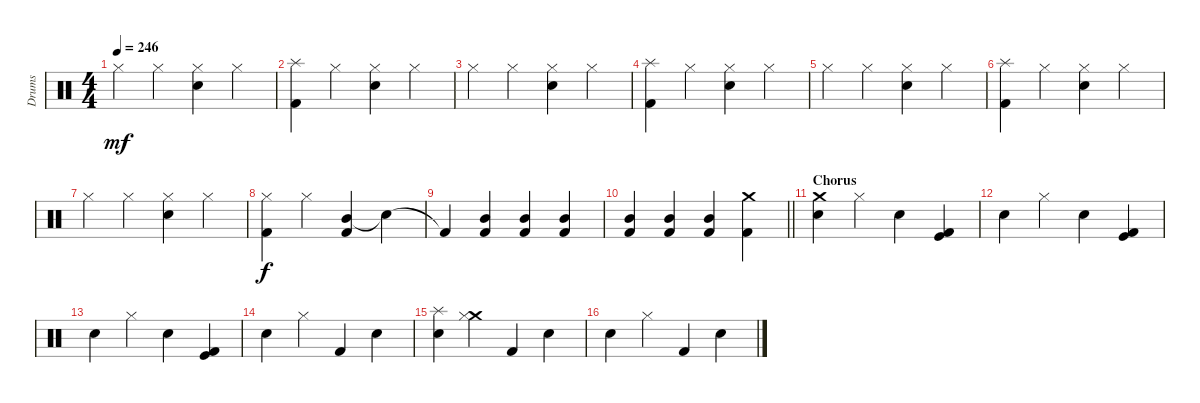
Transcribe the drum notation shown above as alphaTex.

\track ("Drums" "Drums") {instrument percussion}
\staff {score}
\articulation defaults
\ts (4 4)
\tempo 246
\clef neutral
\ks c "Hi-Hat (closed)".4{dy mf} "Hi-Hat (closed)".4
("Hi-Hat (closed)" "Snare (hit) 2").4 "Hi-Hat (closed)".4 |
("Splash (hit)" "Kick (hit) 2").4 "Hi-Hat (closed)".4 ("Hi-Hat (closed)" "Snare (hit) 2").4 "Hi-Hat (closed)".4 |
"Hi-Hat (closed)".4 "Hi-Hat (closed)".4 ("Hi-Hat (closed)" "Snare (hit) 2").4 "Hi-Hat (closed)".4 |
("Splash (hit)" "Kick (hit) 2").4 "Hi-Hat (closed)".4 ("Hi-Hat (closed)" "Snare (hit) 2").4 "Hi-Hat (closed)".4 |
"Hi-Hat (closed)".4 "Hi-Hat (closed)".4 ("Hi-Hat (closed)" "Snare (hit) 2").4 "Hi-Hat (closed)".4 |
("Splash (hit)" "Kick (hit) 2").4 "Hi-Hat (closed)".4 ("Hi-Hat (closed)" "Snare (hit) 2").4 "Hi-Hat (closed)".4 |
"Hi-Hat (closed)".4 "Hi-Hat (closed)".4 ("Hi-Hat (closed)" "Snare (hit) 2").4 "Hi-Hat (closed)".4 |
("Hi-Hat (closed)" "Kick (hit) 2").4{dy f} "Hi-Hat (closed)".4 ("Mid Tom (hit)" "Kick (hit) 2").4 "Snare (hit)"{t}.4 |
"Kick (hit) 2"{t}.4 ("Mid Tom (hit)" "Kick (hit) 2").4 ("Mid Tom (hit)" "Kick (hit) 2").4 ("Mid Tom (hit)" "Kick (hit) 2").4 |
\barLineRight lightlight
("Mid Tom (hit)" "Kick (hit) 2").4 ("Mid Tom (hit)" "Kick (hit) 2").4 ("Mid Tom (hit)" "Kick (hit) 2").4 ("Crash medium (hit)" "Kick (hit) 2").4 |
\section ("" "Chorus")
("Crash medium (hit)" "Snare (hit) 2").4 "Hi-Hat (closed)".4 "Snare (hit) 2".4 ("Kick (hit)" "Kick (hit) 2").4 |
"Snare (hit) 2".4 "Hi-Hat (closed)".4 "Snare (hit) 2".4 ("Kick (hit)" "Kick (hit) 2").4 |
"Snare (hit) 2".4 "Hi-Hat (closed)".4 "Snare (hit) 2".4 ("Kick (hit)" "Kick (hit) 2").4 |
"Snare (hit) 2".4 "Hi-Hat (closed)".4 "Kick (hit) 2".4 "Snare (hit) 2".4 |
("Splash (hit)" "Snare (hit) 2").4 ("Crash medium (hit)" "Hi-Hat (closed)").4 "Kick (hit) 2".4 "Snare (hit) 2".4 |
"Snare (hit) 2".4 "Hi-Hat (closed)".4 "Kick (hit) 2".4 "Snare (hit) 2".4
